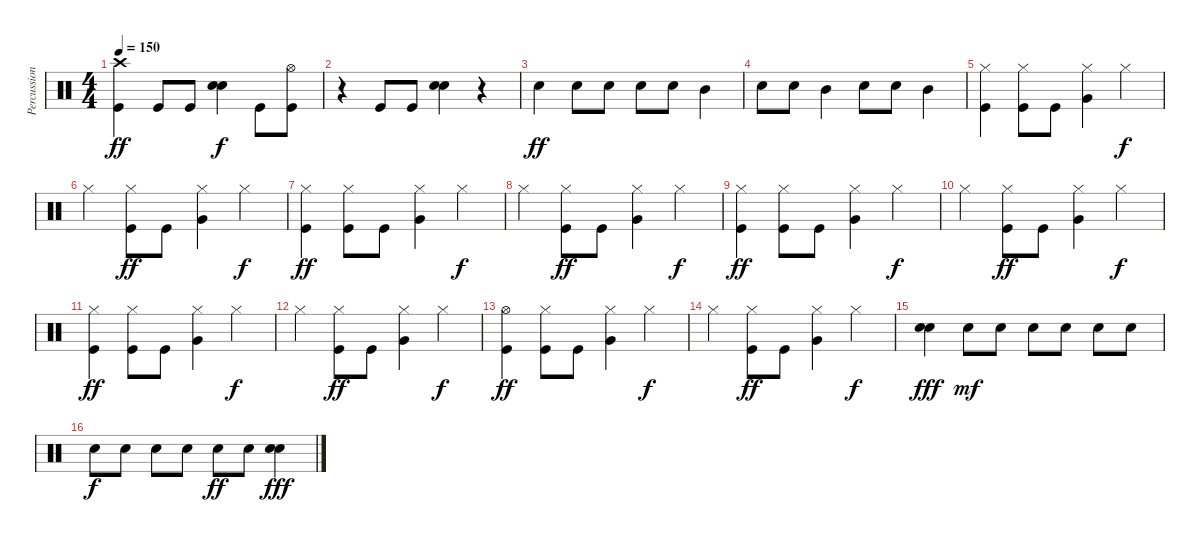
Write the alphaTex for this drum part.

\track ("Percussion" "Percussion") {instrument percussion}
\staff {score}
\articulation defaults
\ts (4 4)
\tempo 150
\clef neutral
\ks c
("Crash high (hit)" "Kick (hit)").4{dy ff} "Kick (hit)".8 "Kick (hit)".8 ("Snare (hit) 2" "Snare (hit) 2").4{dy f} "Kick (hit)".8 ("Hi-Hat (open)" "Kick (hit)").8 |
r.4 "Kick (hit)".8 "Kick (hit)".8 ("Snare (hit) 2" "Snare (hit) 2").4 r.4 |
"Snare (hit) 2".4{dy ff} "Snare (hit) 2".8 "Snare (hit) 2".8 "Snare (hit) 2".8 "Snare (hit) 2".8 "Mid Tom (hit)".4 |
"Snare (hit) 2".8 "Snare (hit) 2".8 "Mid Tom (hit)".4 "Snare (hit) 2".8 "Snare (hit) 2".8 "Mid Tom (hit)".4 |
("Hi-Hat (closed)" "Kick (hit)").4 ("Hi-Hat (closed)" "Kick (hit)").8 "Kick (hit)".8 ("Hi-Hat (closed)" "Very Low Tom (hit)").4 "Hi-Hat (closed)".4{dy f} |
"Hi-Hat (closed)".4 ("Hi-Hat (closed)" "Kick (hit)").8{dy ff} "Kick (hit)".8 ("Hi-Hat (closed)" "Very Low Tom (hit)").4 "Hi-Hat (closed)".4{dy f} |
("Hi-Hat (closed)" "Kick (hit)").4{dy ff} ("Hi-Hat (closed)" "Kick (hit)").8 "Kick (hit)".8 ("Hi-Hat (closed)" "Very Low Tom (hit)").4 "Hi-Hat (closed)".4{dy f} |
"Hi-Hat (closed)".4 ("Hi-Hat (closed)" "Kick (hit)").8{dy ff} "Kick (hit)".8 ("Hi-Hat (closed)" "Very Low Tom (hit)").4 "Hi-Hat (closed)".4{dy f} |
("Hi-Hat (closed)" "Kick (hit)").4{dy ff} ("Hi-Hat (closed)" "Kick (hit)").8 "Kick (hit)".8 ("Hi-Hat (closed)" "Very Low Tom (hit)").4 "Hi-Hat (closed)".4{dy f} |
"Hi-Hat (closed)".4 ("Hi-Hat (closed)" "Kick (hit)").8{dy ff} "Kick (hit)".8 ("Hi-Hat (closed)" "Very Low Tom (hit)").4 "Hi-Hat (closed)".4{dy f} |
("Hi-Hat (closed)" "Kick (hit)").4{dy ff} ("Hi-Hat (closed)" "Kick (hit)").8 "Kick (hit)".8 ("Hi-Hat (closed)" "Very Low Tom (hit)").4 "Hi-Hat (closed)".4{dy f} |
"Hi-Hat (closed)".4 ("Hi-Hat (closed)" "Kick (hit)").8{dy ff} "Kick (hit)".8 ("Hi-Hat (closed)" "Very Low Tom (hit)").4 "Hi-Hat (closed)".4{dy f} |
("Hi-Hat (open)" "Kick (hit)").4{dy ff} ("Hi-Hat (closed)" "Kick (hit)").8 "Kick (hit)".8 ("Hi-Hat (closed)" "Very Low Tom (hit)").4 "Hi-Hat (closed)".4{dy f} |
"Hi-Hat (closed)".4 ("Hi-Hat (closed)" "Kick (hit)").8{dy ff} "Kick (hit)".8 ("Hi-Hat (closed)" "Very Low Tom (hit)").4 "Hi-Hat (closed)".4{dy f} |
("Snare (hit) 2" "Snare (hit) 2").4{dy fff} "Snare (hit) 2".8{dy mf} "Snare (hit) 2".8 "Snare (hit) 2".8 "Snare (hit) 2".8 "Snare (hit) 2".8 "Snare (hit) 2".8 |
"Snare (hit) 2".8{dy f} "Snare (hit) 2".8 "Snare (hit) 2".8 "Snare (hit) 2".8 "Snare (hit) 2".8{dy ff} "Snare (hit) 2".8 ("Snare (hit) 2" "Snare (hit) 2").4{dy fff}
